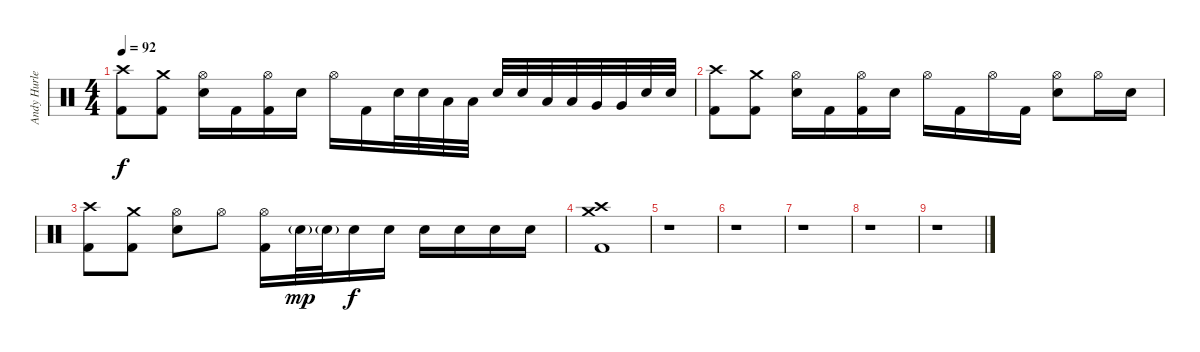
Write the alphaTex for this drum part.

\track ("Andy Hurley" "Andy Hurle") {instrument percussion}
\staff {score}
\articulation defaults
\ts (4 4)
\tempo 92
\clef neutral
\ks c
("Crash high (hit)" "Kick (hit) 2").8{dy f} ("Crash medium (hit)" "Kick (hit) 2").8 ("Hi-Hat (open)" "Snare (hit) 2").16 "Kick (hit) 2".16 ("Hi-Hat (open)" "Kick (hit) 2").16 "Snare (hit) 2".16 "Hi-Hat (open)".16 "Kick (hit) 2".16 "Snare (hit) 2".32 "Snare (hit) 2".32 "Low Tom (hit)".32 "Low Tom (hit)".32 "Snare (hit) 2".32 "Snare (hit) 2".32 "Low Tom (hit)".32 "Low Tom (hit)".32 "Very Low Tom (hit)".32 "Very Low Tom (hit)".32 "Snare (hit) 2".32 "Snare (hit) 2".32 |
("Crash high (hit)" "Kick (hit) 2").8 ("Crash medium (hit)" "Kick (hit) 2").8 ("Hi-Hat (open)" "Snare (hit) 2").16 "Kick (hit) 2".16 ("Hi-Hat (open)" "Kick (hit) 2").16 "Snare (hit) 2".16 "Hi-Hat (open)".16 "Kick (hit) 2".16 "Hi-Hat (open)".16 "Kick (hit) 2".16 ("Hi-Hat (open)" "Snare (hit) 2").8 "Hi-Hat (open)".16 "Snare (hit) 2".16 |
("Crash high (hit)" "Kick (hit) 2").8 ("Crash medium (hit)" "Kick (hit) 2").8 ("Hi-Hat (open)" "Snare (hit) 2").8 "Hi-Hat (open)".8 ("Hi-Hat (open)" "Kick (hit) 2").16 "Snare (hit) 2"{g}.32{dy mp} "Snare (hit) 2"{g}.32 "Snare (hit) 2".16{dy f} "Snare (hit) 2".16 "Snare (hit) 2".16 "Snare (hit) 2".16 "Snare (hit) 2".16 "Snare (hit) 2".16 |
("Crash high (hit)" "Crash medium (hit)" "Kick (hit) 2").1 |
r.1 |
r.1 |
r.1 |
r.1 |
r.1
